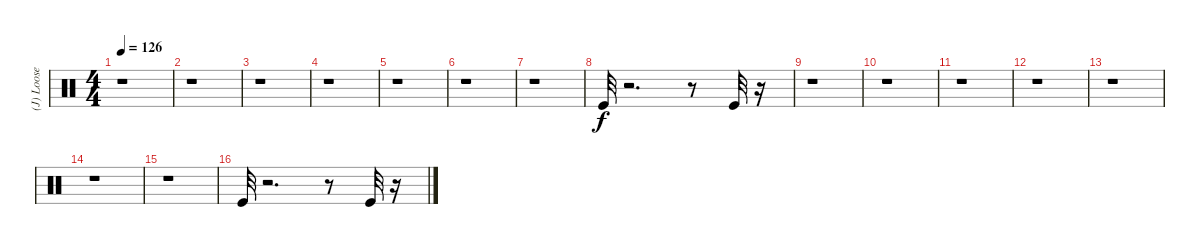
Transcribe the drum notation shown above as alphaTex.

\track ("(J) Loose Kick" "(J) Loose ") {instrument percussion}
\staff {score}
\articulation defaults
\ts (4 4)
\tempo 126
\clef neutral
\ks c
r.1{dy f} |
r.1 |
r.1 |
r.1 |
r.1 |
r.1 |
r.1 |
"Kick (hit)".32 r.2{d} r.8 "Kick (hit)".32 r.16 |
r.1 |
r.1 |
r.1 |
r.1 |
r.1 |
r.1 |
r.1 |
"Kick (hit)".32 r.2{d} r.8 "Kick (hit)".32 r.16
